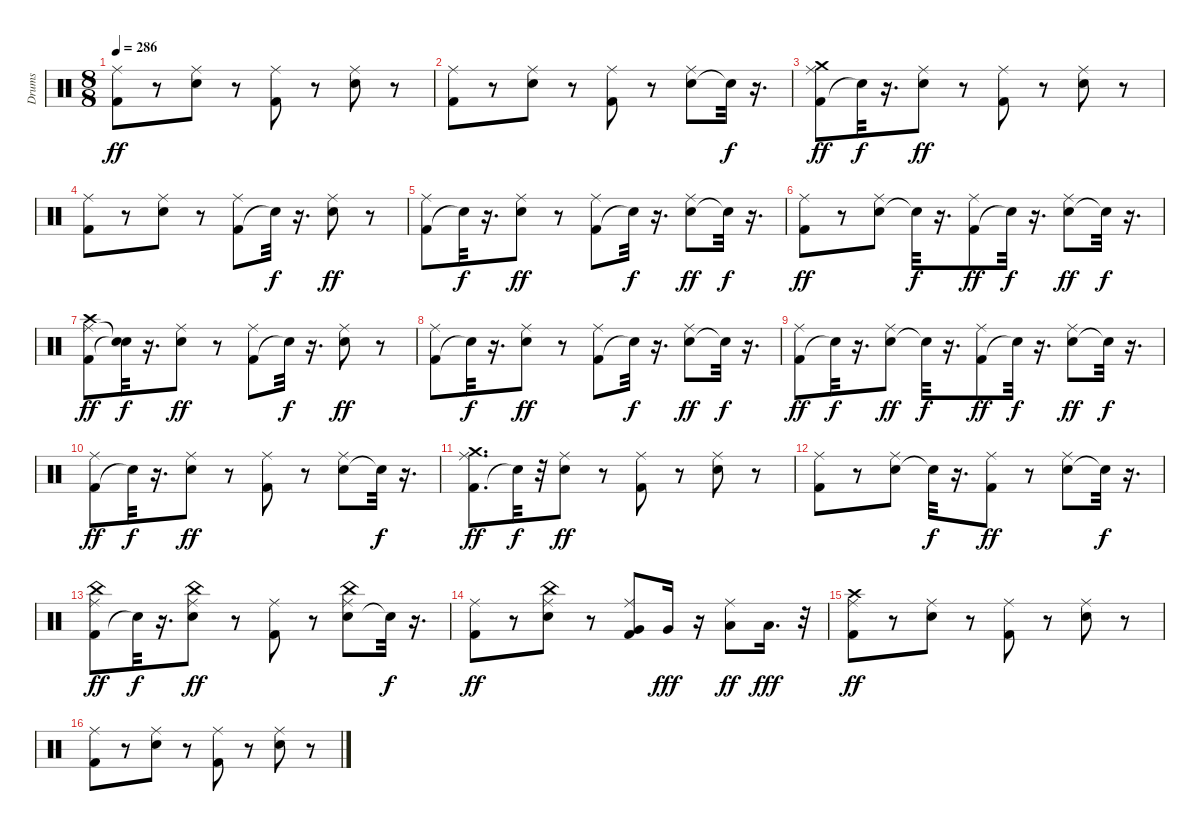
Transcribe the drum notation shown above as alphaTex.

\track ("Drums" "Drums") {instrument percussion}
\staff {score}
\articulation defaults
\ts (8 8)
\tempo 286
\clef neutral
\ks c
("Kick (hit) 2" "Ride (middle)").8{dy ff} r.8 ("Snare (hit) 2" "Ride (middle)").8 r.8 ("Kick (hit) 2" "Ride (middle)").8 r.8 ("Snare (hit) 2" "Ride (middle)").8 r.8 |
("Kick (hit) 2" "Ride (middle)").8 r.8 ("Snare (hit) 2" "Ride (middle)").8 r.8 ("Kick (hit) 2" "Ride (middle)").8 r.8 ("Snare (hit) 2" "Ride (middle)").8 "Snare (hit)"{t}.32{dy f} r.16{d} |
("Kick (hit) 2" "Ride (middle)" "Crash medium (hit)").8{dy ff} "Snare (hit)"{t}.32{dy f} r.16{d} ("Snare (hit) 2" "Ride (middle)").8{dy ff} r.8 ("Kick (hit) 2" "Ride (middle)").8 r.8 ("Snare (hit) 2" "Ride (middle)").8 r.8 |
("Kick (hit) 2" "Ride (middle)").8 r.8 ("Snare (hit) 2" "Ride (middle)").8 r.8 ("Kick (hit) 2" "Ride (middle)").8 "Snare (hit)"{t}.32{dy f} r.16{d} ("Snare (hit) 2" "Ride (middle)").8{dy ff} r.8 |
("Kick (hit) 2" "Ride (middle)").8 "Snare (hit)"{t}.32{dy f} r.16{d} ("Snare (hit) 2" "Ride (middle)").8{dy ff} r.8 ("Kick (hit) 2" "Ride (middle)").8 "Snare (hit)"{t}.32{dy f} r.16{d} ("Snare (hit) 2" "Ride (middle)").8{dy ff} "Snare (hit)"{t}.32{dy f} r.16{d} |
("Kick (hit) 2" "Ride (middle)").8{dy ff} r.8 ("Snare (hit) 2" "Ride (middle)").8 "Snare (hit)"{t}.32{dy f} r.16{d} ("Kick (hit) 2" "Ride (middle)").8{dy ff} "Snare (hit)"{t}.32{dy f} r.16{d} ("Snare (hit) 2" "Ride (middle)").8{dy ff} "Snare (hit)"{t}.32{dy f} r.16{d} |
("Kick (hit) 2" "Ride (middle)" "Crash high (hit)").8{dy ff} ("Snare (hit)"{t} "Snare (hit)"{t}).32{dy f} r.16{d} ("Snare (hit) 2" "Ride (middle)").8{dy ff} r.8 ("Kick (hit) 2" "Ride (middle)").8 "Snare (hit)"{t}.32{dy f} r.16{d} ("Snare (hit) 2" "Ride (middle)").8{dy ff} r.8 |
("Kick (hit) 2" "Ride (middle)").8 "Snare (hit)"{t}.32{dy f} r.16{d} ("Snare (hit) 2" "Ride (middle)").8{dy ff} r.8 ("Kick (hit) 2" "Ride (middle)").8 "Snare (hit)"{t}.32{dy f} r.16{d} ("Snare (hit) 2" "Ride (middle)").8{dy ff} "Snare (hit)"{t}.32{dy f} r.16{d} |
("Kick (hit) 2" "Ride (middle)").8{dy ff} "Snare (hit)"{t}.32{dy f} r.16{d} ("Snare (hit) 2" "Ride (middle)").8{dy ff} "Snare (hit)"{t}.32{dy f} r.16{d} ("Kick (hit) 2" "Ride (middle)").8{dy ff} "Snare (hit)"{t}.32{dy f} r.16{d} ("Snare (hit) 2" "Ride (middle)").8{dy ff} "Snare (hit)"{t}.32{dy f} r.16{d} |
("Kick (hit) 2" "Ride (middle)").8{dy ff} "Snare (hit)"{t}.32{dy f} r.16{d} ("Snare (hit) 2" "Ride (middle)").8{dy ff} r.8 ("Kick (hit) 2" "Ride (middle)").8 r.8 ("Snare (hit) 2" "Ride (middle)").8 "Snare (hit)"{t}.32{dy f} r.16{d} |
("Kick (hit) 2" "Ride (middle)" "Crash medium (hit)").8{d dy ff} "Snare (hit)"{t}.32{dy f} r.32 ("Snare (hit) 2" "Ride (middle)").8{dy ff} r.8 ("Kick (hit) 2" "Ride (middle)").8 r.8 ("Snare (hit) 2" "Ride (middle)").8 r.8 |
("Kick (hit) 2" "Ride (middle)").8 r.8 ("Snare (hit) 2" "Ride (middle)").8 "Snare (hit)"{t}.32{dy f} r.16{d} ("Kick (hit) 2" "Ride (middle)").8{dy ff} r.8 ("Snare (hit) 2" "Ride (middle)").8 "Snare (hit)"{t}.32{dy f} r.16{d} |
("Kick (hit) 2" "Ride (middle)" "China (hit)").8{dy ff} "Snare (hit)"{t}.32{dy f} r.16{d} ("Snare (hit) 2" "Ride (middle)" "China (hit)").8{dy ff} r.8 ("Kick (hit) 2" "Ride (middle)").8 r.8 ("Snare (hit) 2" "Ride (middle)" "China (hit)").8 "Snare (hit)"{t}.32{dy f} r.16{d} |
("Kick (hit) 2" "Ride (middle)").8{dy ff} r.8 ("Snare (hit) 2" "Ride (middle)" "China (hit)").8 r.8 ("Kick (hit) 2" "Very Low Tom (hit)" "Ride (middle)").8 "Very Low Tom (hit)".16{dy fff} r.16 ("Low Floor Tom (hit)" "Ride (middle)").8{dy ff} "Low Floor Tom (hit)".16{d dy fff} r.32 |
("Kick (hit) 2" "Ride (middle)" "Crash high (hit)").8{dy ff} r.8 ("Snare (hit) 2" "Ride (middle)").8 r.8 ("Kick (hit) 2" "Ride (middle)").8 r.8 ("Snare (hit) 2" "Ride (middle)").8 r.8 |
("Kick (hit) 2" "Ride (middle)").8 r.8 ("Snare (hit) 2" "Ride (middle)").8 r.8 ("Kick (hit) 2" "Ride (middle)").8 r.8 ("Snare (hit) 2" "Ride (middle)").8 r.8
